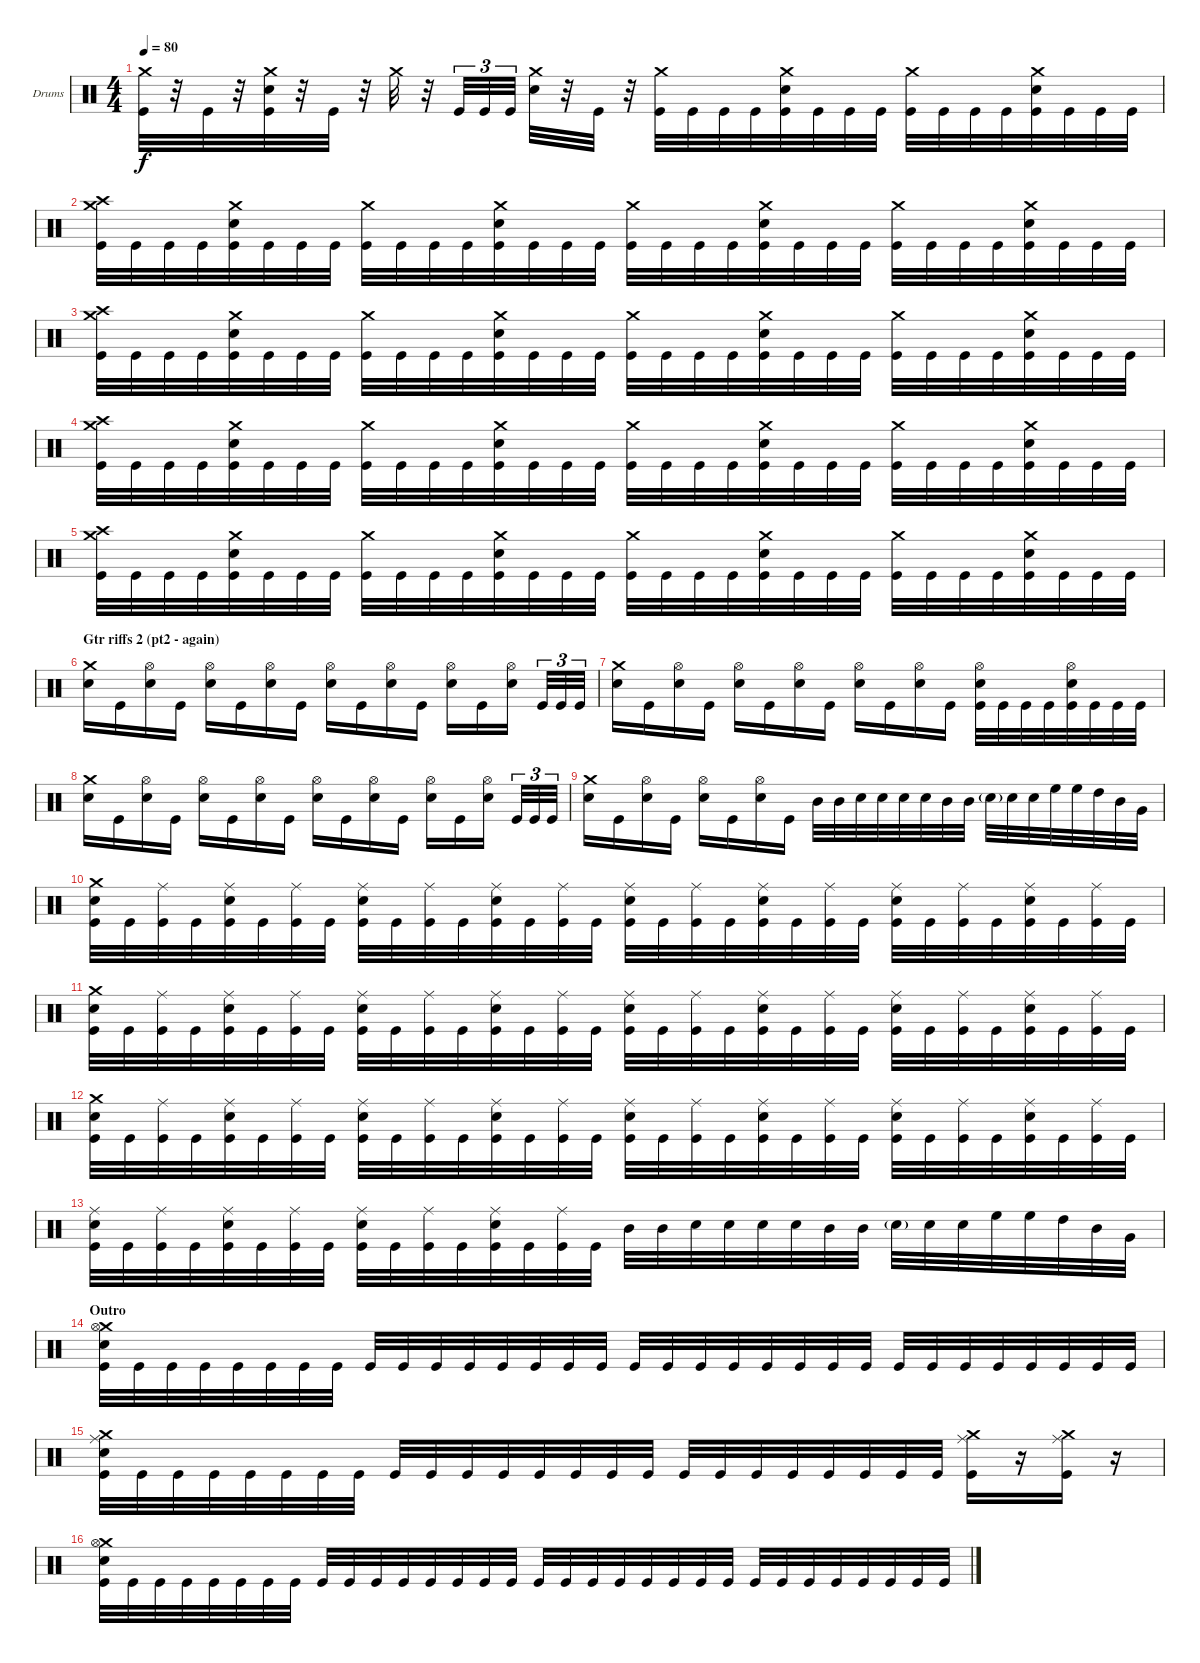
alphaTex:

\bracketExtendMode groupsimilarinstruments
\firstSystemTrackNameOrientation horizontal
\otherSystemsTrackNameOrientation horizontal
\track ("Drumkit" "Drums") {instrument percussion}
\staff {score}
\articulation defaults
\ts (4 4)
\tempo 80
\clef neutral
\ks c
("Crash medium (hit)" "Kick (hit)").32{dy f} r.32 "Kick (hit)".32 r.32 ("Crash medium (hit)" "Snare (hit) 2" "Kick (hit)").32 r.32 "Kick (hit)".32 r.32 "Crash medium (hit)".32 r.32 "Kick (hit)".32{tu (3 2)} "Kick (hit)".32{tu (3 2)} "Kick (hit)".32{tu (3 2)} ("Crash medium (hit)" "Snare (hit) 2").32 r.32 "Kick (hit)".32 r.32 ("Crash medium (hit)" "Kick (hit)").32 "Kick (hit)".32 "Kick (hit)".32 "Kick (hit)".32 ("Crash medium (hit)" "Snare (hit) 2" "Kick (hit)").32 "Kick (hit)".32 "Kick (hit)".32 "Kick (hit)".32 ("Crash medium (hit)" "Kick (hit)").32 "Kick (hit)".32 "Kick (hit)".32 "Kick (hit)".32 ("Crash medium (hit)" "Snare (hit) 2" "Kick (hit)").32 "Kick (hit)".32 "Kick (hit)".32 "Kick (hit)".32 |
("Crash medium (hit)" "Crash high (hit)" "Kick (hit)").32 "Kick (hit)".32 "Kick (hit)".32 "Kick (hit)".32 ("Crash medium (hit)" "Snare (hit) 2" "Kick (hit)").32 "Kick (hit)".32 "Kick (hit)".32 "Kick (hit)".32 ("Crash medium (hit)" "Kick (hit)").32 "Kick (hit)".32 "Kick (hit)".32 "Kick (hit)".32 ("Crash medium (hit)" "Snare (hit) 2" "Kick (hit)").32 "Kick (hit)".32 "Kick (hit)".32 "Kick (hit)".32 ("Crash medium (hit)" "Kick (hit)").32 "Kick (hit)".32 "Kick (hit)".32 "Kick (hit)".32 ("Crash medium (hit)" "Snare (hit) 2" "Kick (hit)").32 "Kick (hit)".32 "Kick (hit)".32 "Kick (hit)".32 ("Crash medium (hit)" "Kick (hit)").32 "Kick (hit)".32 "Kick (hit)".32 "Kick (hit)".32 ("Crash medium (hit)" "Snare (hit) 2" "Kick (hit)").32 "Kick (hit)".32 "Kick (hit)".32 "Kick (hit)".32 |
("Crash medium (hit)" "Crash high (hit)" "Kick (hit)").32 "Kick (hit)".32 "Kick (hit)".32 "Kick (hit)".32 ("Crash medium (hit)" "Snare (hit) 2" "Kick (hit)").32 "Kick (hit)".32 "Kick (hit)".32 "Kick (hit)".32 ("Crash medium (hit)" "Kick (hit)").32 "Kick (hit)".32 "Kick (hit)".32 "Kick (hit)".32 ("Crash medium (hit)" "Snare (hit) 2" "Kick (hit)").32 "Kick (hit)".32 "Kick (hit)".32 "Kick (hit)".32 ("Crash medium (hit)" "Kick (hit)").32 "Kick (hit)".32 "Kick (hit)".32 "Kick (hit)".32 ("Crash medium (hit)" "Snare (hit) 2" "Kick (hit)").32 "Kick (hit)".32 "Kick (hit)".32 "Kick (hit)".32 ("Crash medium (hit)" "Kick (hit)").32 "Kick (hit)".32 "Kick (hit)".32 "Kick (hit)".32 ("Crash medium (hit)" "Snare (hit) 2" "Kick (hit)").32 "Kick (hit)".32 "Kick (hit)".32 "Kick (hit)".32 |
("Crash medium (hit)" "Crash high (hit)" "Kick (hit)").32 "Kick (hit)".32 "Kick (hit)".32 "Kick (hit)".32 ("Crash medium (hit)" "Snare (hit) 2" "Kick (hit)").32 "Kick (hit)".32 "Kick (hit)".32 "Kick (hit)".32 ("Crash medium (hit)" "Kick (hit)").32 "Kick (hit)".32 "Kick (hit)".32 "Kick (hit)".32 ("Crash medium (hit)" "Snare (hit) 2" "Kick (hit)").32 "Kick (hit)".32 "Kick (hit)".32 "Kick (hit)".32 ("Crash medium (hit)" "Kick (hit)").32 "Kick (hit)".32 "Kick (hit)".32 "Kick (hit)".32 ("Crash medium (hit)" "Snare (hit) 2" "Kick (hit)").32 "Kick (hit)".32 "Kick (hit)".32 "Kick (hit)".32 ("Crash medium (hit)" "Kick (hit)").32 "Kick (hit)".32 "Kick (hit)".32 "Kick (hit)".32 ("Crash medium (hit)" "Snare (hit) 2" "Kick (hit)").32 "Kick (hit)".32 "Kick (hit)".32 "Kick (hit)".32 |
("Crash medium (hit)" "Crash high (hit)" "Kick (hit)").32 "Kick (hit)".32 "Kick (hit)".32 "Kick (hit)".32 ("Crash medium (hit)" "Snare (hit) 2" "Kick (hit)").32 "Kick (hit)".32 "Kick (hit)".32 "Kick (hit)".32 ("Crash medium (hit)" "Kick (hit)").32 "Kick (hit)".32 "Kick (hit)".32 "Kick (hit)".32 ("Crash medium (hit)" "Snare (hit) 2" "Kick (hit)").32 "Kick (hit)".32 "Kick (hit)".32 "Kick (hit)".32 ("Crash medium (hit)" "Kick (hit)").32 "Kick (hit)".32 "Kick (hit)".32 "Kick (hit)".32 ("Crash medium (hit)" "Snare (hit) 2" "Kick (hit)").32 "Kick (hit)".32 "Kick (hit)".32 "Kick (hit)".32 ("Crash medium (hit)" "Kick (hit)").32 "Kick (hit)".32 "Kick (hit)".32 "Kick (hit)".32 ("Crash medium (hit)" "Snare (hit) 2" "Kick (hit)").32 "Kick (hit)".32 "Kick (hit)".32 "Kick (hit)".32 |
\section ("" "Gtr riffs 2 (pt2 - again)")
("Crash medium (hit)" "Snare (hit) 2").16 "Kick (hit)".16 ("Hi-Hat (open)" "Snare (hit) 2").16 "Kick (hit)".16 ("Hi-Hat (open)" "Snare (hit) 2").16 "Kick (hit)".16 ("Hi-Hat (open)" "Snare (hit) 2").16 "Kick (hit)".16 ("Hi-Hat (open)" "Snare (hit) 2").16 "Kick (hit)".16 ("Hi-Hat (open)" "Snare (hit) 2").16 "Kick (hit)".16 ("Hi-Hat (open)" "Snare (hit) 2").16 "Kick (hit)".16 ("Hi-Hat (open)" "Snare (hit) 2").16 "Kick (hit)".32{tu (3 2)} "Kick (hit)".32{tu (3 2)} "Kick (hit)".32{tu (3 2)} |
("Crash medium (hit)" "Snare (hit) 2").16 "Kick (hit)".16 ("Hi-Hat (open)" "Snare (hit) 2").16 "Kick (hit)".16 ("Hi-Hat (open)" "Snare (hit) 2").16 "Kick (hit)".16 ("Hi-Hat (open)" "Snare (hit) 2").16 "Kick (hit)".16 ("Hi-Hat (open)" "Snare (hit) 2").16 "Kick (hit)".16 ("Hi-Hat (open)" "Snare (hit) 2").16 "Kick (hit)".16 ("Hi-Hat (open)" "Snare (hit) 2" "Kick (hit)").32 "Kick (hit)".32 "Kick (hit)".32 "Kick (hit)".32 ("Hi-Hat (open)" "Snare (hit) 2" "Kick (hit)").32 "Kick (hit)".32 "Kick (hit)".32 "Kick (hit)".32 |
("Crash medium (hit)" "Snare (hit) 2").16 "Kick (hit)".16 ("Hi-Hat (open)" "Snare (hit) 2").16 "Kick (hit)".16 ("Hi-Hat (open)" "Snare (hit) 2").16 "Kick (hit)".16 ("Hi-Hat (open)" "Snare (hit) 2").16 "Kick (hit)".16 ("Hi-Hat (open)" "Snare (hit) 2").16 "Kick (hit)".16 ("Hi-Hat (open)" "Snare (hit) 2").16 "Kick (hit)".16 ("Hi-Hat (open)" "Snare (hit) 2").16 "Kick (hit)".16 ("Hi-Hat (open)" "Snare (hit) 2").16 "Kick (hit)".32{tu (3 2)} "Kick (hit)".32{tu (3 2)} "Kick (hit)".32{tu (3 2)} |
("Crash medium (hit)" "Snare (hit) 2").16 "Kick (hit)".16 ("Hi-Hat (open)" "Snare (hit) 2").16 "Kick (hit)".16 ("Hi-Hat (open)" "Snare (hit) 2").16 "Kick (hit)".16 ("Hi-Hat (open)" "Snare (hit) 2").16 "Kick (hit)".16 "Mid Tom (hit)".32 "Mid Tom (hit)".32 "Snare (hit) 2".32 "Snare (hit) 2".32 "Snare (hit) 2".32 "Snare (hit) 2".32 "Mid Tom (hit)".32 "Mid Tom (hit)".32 "Snare (hit) 2"{g}.32 "Snare (hit) 2".32 "Snare (hit) 2".32 "High Floor Tom (hit)".32 "High Floor Tom (hit)".32 "High Tom (hit)".32 "Mid Tom (hit)".32 "Very Low Tom (hit)".32 |
("Crash medium (hit)" "Snare (hit) 2" "Kick (hit)").32 "Kick (hit)".32 ("Ride (middle)" "Kick (hit)").32 "Kick (hit)".32 ("Ride (middle)" "Snare (hit) 2" "Kick (hit)").32 "Kick (hit)".32 ("Ride (middle)" "Kick (hit)").32 "Kick (hit)".32 ("Ride (middle)" "Snare (hit) 2" "Kick (hit)").32 "Kick (hit)".32 ("Ride (middle)" "Kick (hit)").32 "Kick (hit)".32 ("Ride (middle)" "Snare (hit) 2" "Kick (hit)").32 "Kick (hit)".32 ("Ride (middle)" "Kick (hit)").32 "Kick (hit)".32 ("Ride (middle)" "Snare (hit) 2" "Kick (hit)").32 "Kick (hit)".32 ("Ride (middle)" "Kick (hit)").32 "Kick (hit)".32 ("Ride (middle)" "Snare (hit) 2" "Kick (hit)").32 "Kick (hit)".32 ("Ride (middle)" "Kick (hit)").32 "Kick (hit)".32 ("Ride (middle)" "Snare (hit) 2" "Kick (hit)").32 "Kick (hit)".32 ("Ride (middle)" "Kick (hit)").32 "Kick (hit)".32 ("Ride (middle)" "Snare (hit) 2" "Kick (hit)").32 "Kick (hit)".32 ("Ride (middle)" "Kick (hit)").32 "Kick (hit)".32 |
("Crash medium (hit)" "Snare (hit) 2" "Kick (hit)").32 "Kick (hit)".32 ("Ride (middle)" "Kick (hit)").32 "Kick (hit)".32 ("Ride (middle)" "Snare (hit) 2" "Kick (hit)").32 "Kick (hit)".32 ("Ride (middle)" "Kick (hit)").32 "Kick (hit)".32 ("Ride (middle)" "Snare (hit) 2" "Kick (hit)").32 "Kick (hit)".32 ("Ride (middle)" "Kick (hit)").32 "Kick (hit)".32 ("Ride (middle)" "Snare (hit) 2" "Kick (hit)").32 "Kick (hit)".32 ("Ride (middle)" "Kick (hit)").32 "Kick (hit)".32 ("Ride (middle)" "Snare (hit) 2" "Kick (hit)").32 "Kick (hit)".32 ("Ride (middle)" "Kick (hit)").32 "Kick (hit)".32 ("Ride (middle)" "Snare (hit) 2" "Kick (hit)").32 "Kick (hit)".32 ("Ride (middle)" "Kick (hit)").32 "Kick (hit)".32 ("Ride (middle)" "Snare (hit) 2" "Kick (hit)").32 "Kick (hit)".32 ("Ride (middle)" "Kick (hit)").32 "Kick (hit)".32 ("Ride (middle)" "Snare (hit) 2" "Kick (hit)").32 "Kick (hit)".32 ("Ride (middle)" "Kick (hit)").32 "Kick (hit)".32 |
("Crash medium (hit)" "Snare (hit) 2" "Kick (hit)").32 "Kick (hit)".32 ("Ride (middle)" "Kick (hit)").32 "Kick (hit)".32 ("Ride (middle)" "Snare (hit) 2" "Kick (hit)").32 "Kick (hit)".32 ("Ride (middle)" "Kick (hit)").32 "Kick (hit)".32 ("Ride (middle)" "Snare (hit) 2" "Kick (hit)").32 "Kick (hit)".32 ("Ride (middle)" "Kick (hit)").32 "Kick (hit)".32 ("Ride (middle)" "Snare (hit) 2" "Kick (hit)").32 "Kick (hit)".32 ("Ride (middle)" "Kick (hit)").32 "Kick (hit)".32 ("Ride (middle)" "Snare (hit) 2" "Kick (hit)").32 "Kick (hit)".32 ("Ride (middle)" "Kick (hit)").32 "Kick (hit)".32 ("Ride (middle)" "Snare (hit) 2" "Kick (hit)").32 "Kick (hit)".32 ("Ride (middle)" "Kick (hit)").32 "Kick (hit)".32 ("Ride (middle)" "Snare (hit) 2" "Kick (hit)").32 "Kick (hit)".32 ("Ride (middle)" "Kick (hit)").32 "Kick (hit)".32 ("Ride (middle)" "Snare (hit) 2" "Kick (hit)").32 "Kick (hit)".32 ("Ride (middle)" "Kick (hit)").32 "Kick (hit)".32 |
("Ride (middle)" "Snare (hit) 2" "Kick (hit)").32 "Kick (hit)".32 ("Ride (middle)" "Kick (hit)").32 "Kick (hit)".32 ("Ride (middle)" "Snare (hit) 2" "Kick (hit)").32 "Kick (hit)".32 ("Ride (middle)" "Kick (hit)").32 "Kick (hit)".32 ("Ride (middle)" "Snare (hit) 2" "Kick (hit)").32 "Kick (hit)".32 ("Ride (middle)" "Kick (hit)").32 "Kick (hit)".32 ("Ride (middle)" "Snare (hit) 2" "Kick (hit)").32 "Kick (hit)".32 ("Ride (middle)" "Kick (hit)").32 "Kick (hit)".32 "Mid Tom (hit)".32 "Mid Tom (hit)".32 "Snare (hit) 2".32 "Snare (hit) 2".32 "Snare (hit) 2".32 "Snare (hit) 2".32 "Mid Tom (hit)".32 "Mid Tom (hit)".32 "Snare (hit) 2"{g}.32 "Snare (hit) 2".32 "Snare (hit) 2".32 "High Floor Tom (hit)".32 "High Floor Tom (hit)".32 "High Tom (hit)".32 "Mid Tom (hit)".32 "Very Low Tom (hit)".32 |
\section ("" "Outro ")
("Crash medium (hit)" "Hi-Hat (open)" "Snare (hit) 2" "Kick (hit)").32 "Kick (hit)".32 "Kick (hit)".32 "Kick (hit)".32 "Kick (hit)".32 "Kick (hit)".32 "Kick (hit)".32 "Kick (hit)".32 "Kick (hit)".32 "Kick (hit)".32 "Kick (hit)".32 "Kick (hit)".32 "Kick (hit)".32 "Kick (hit)".32 "Kick (hit)".32 "Kick (hit)".32 "Kick (hit)".32 "Kick (hit)".32 "Kick (hit)".32 "Kick (hit)".32 "Kick (hit)".32 "Kick (hit)".32 "Kick (hit)".32 "Kick (hit)".32 "Kick (hit)".32 "Kick (hit)".32 "Kick (hit)".32 "Kick (hit)".32 "Kick (hit)".32 "Kick (hit)".32 "Kick (hit)".32 "Kick (hit)".32 |
("Crash medium (hit)" "Ride (middle)" "Snare (hit) 2" "Kick (hit)").32 "Kick (hit)".32 "Kick (hit)".32 "Kick (hit)".32 "Kick (hit)".32 "Kick (hit)".32 "Kick (hit)".32 "Kick (hit)".32 "Kick (hit)".32 "Kick (hit)".32 "Kick (hit)".32 "Kick (hit)".32 "Kick (hit)".32 "Kick (hit)".32 "Kick (hit)".32 "Kick (hit)".32 "Kick (hit)".32 "Kick (hit)".32 "Kick (hit)".32 "Kick (hit)".32 "Kick (hit)".32 "Kick (hit)".32 "Kick (hit)".32 "Kick (hit)".32 ("Crash medium (hit)" "Ride (middle)" "Kick (hit)").16 r.16 ("Crash medium (hit)" "Ride (middle)" "Kick (hit)").16 r.16 |
("Crash medium (hit)" "Hi-Hat (open)" "Snare (hit) 2" "Kick (hit)").32 "Kick (hit)".32 "Kick (hit)".32 "Kick (hit)".32 "Kick (hit)".32 "Kick (hit)".32 "Kick (hit)".32 "Kick (hit)".32 "Kick (hit)".32 "Kick (hit)".32 "Kick (hit)".32 "Kick (hit)".32 "Kick (hit)".32 "Kick (hit)".32 "Kick (hit)".32 "Kick (hit)".32 "Kick (hit)".32 "Kick (hit)".32 "Kick (hit)".32 "Kick (hit)".32 "Kick (hit)".32 "Kick (hit)".32 "Kick (hit)".32 "Kick (hit)".32 "Kick (hit)".32 "Kick (hit)".32 "Kick (hit)".32 "Kick (hit)".32 "Kick (hit)".32 "Kick (hit)".32 "Kick (hit)".32 "Kick (hit)".32
